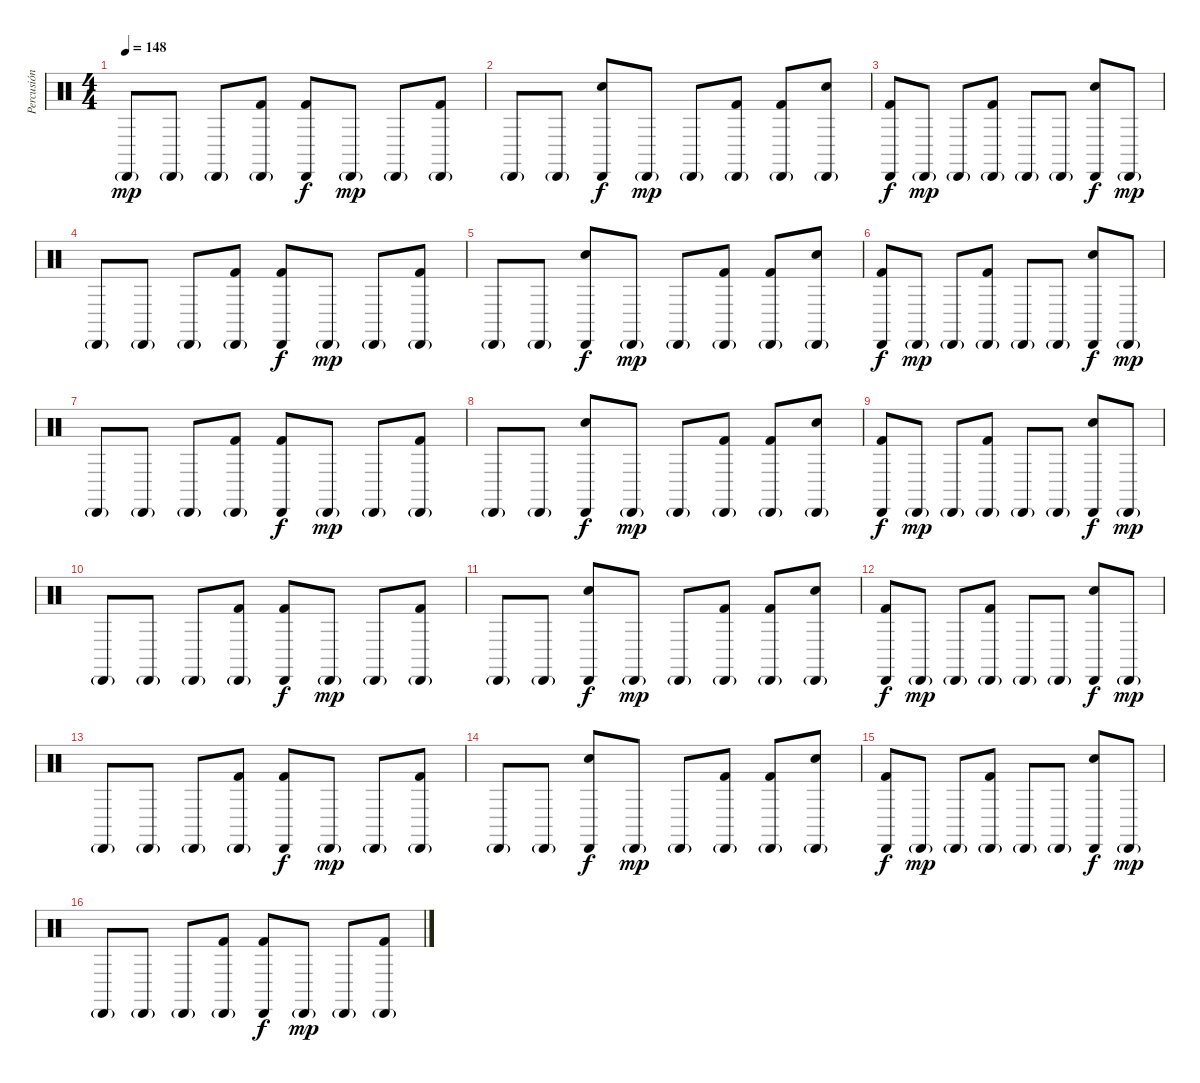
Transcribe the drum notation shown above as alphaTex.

\track ("Percusión" "Percusión") {instrument percussion}
\staff {score}
\articulation defaults
\ts (4 4)
\tempo 148
\clef neutral
\ks c "Cabasa (hit)"{g}.8{dy mp} "Cabasa (hit)"{g}.8 "Cabasa (hit)"{g}.8
("Kick (hit) 2" "Cabasa (hit)"{g}).8 ("Kick (hit) 2" "Cabasa (hit)").8{dy f} "Cabasa (hit)"{g}.8{dy mp} "Cabasa (hit)"{g}.8 ("Kick (hit) 2" "Cabasa (hit)"{g}).8 |
"Cabasa (hit)"{g}.8 "Cabasa (hit)"{g}.8 ("Electric Snare (hit)" "Cabasa (hit)").8{dy f} "Cabasa (hit)"{g}.8{dy mp} "Cabasa (hit)"{g}.8 ("Kick (hit) 2" "Cabasa (hit)"{g}).8 ("Kick (hit) 2" "Cabasa (hit)"{g}).8 ("Electric Snare (hit)" "Cabasa (hit)"{g}).8 |
("Kick (hit) 2" "Cabasa (hit)").8{dy f} "Cabasa (hit)"{g}.8{dy mp} "Cabasa (hit)"{g}.8 ("Kick (hit) 2" "Cabasa (hit)"{g}).8 "Cabasa (hit)"{g}.8 "Cabasa (hit)"{g}.8 ("Electric Snare (hit)" "Cabasa (hit)").8{dy f} "Cabasa (hit)"{g}.8{dy mp} |
"Cabasa (hit)"{g}.8 "Cabasa (hit)"{g}.8 "Cabasa (hit)"{g}.8 ("Kick (hit) 2" "Cabasa (hit)"{g}).8 ("Kick (hit) 2" "Cabasa (hit)").8{dy f} "Cabasa (hit)"{g}.8{dy mp} "Cabasa (hit)"{g}.8 ("Kick (hit) 2" "Cabasa (hit)"{g}).8 |
"Cabasa (hit)"{g}.8 "Cabasa (hit)"{g}.8 ("Electric Snare (hit)" "Cabasa (hit)").8{dy f} "Cabasa (hit)"{g}.8{dy mp} "Cabasa (hit)"{g}.8 ("Kick (hit) 2" "Cabasa (hit)"{g}).8 ("Kick (hit) 2" "Cabasa (hit)"{g}).8 ("Electric Snare (hit)" "Cabasa (hit)"{g}).8 |
("Kick (hit) 2" "Cabasa (hit)").8{dy f} "Cabasa (hit)"{g}.8{dy mp} "Cabasa (hit)"{g}.8 ("Kick (hit) 2" "Cabasa (hit)"{g}).8 "Cabasa (hit)"{g}.8 "Cabasa (hit)"{g}.8 ("Electric Snare (hit)" "Cabasa (hit)").8{dy f} "Cabasa (hit)"{g}.8{dy mp} |
"Cabasa (hit)"{g}.8 "Cabasa (hit)"{g}.8 "Cabasa (hit)"{g}.8 ("Kick (hit) 2" "Cabasa (hit)"{g}).8 ("Kick (hit) 2" "Cabasa (hit)").8{dy f} "Cabasa (hit)"{g}.8{dy mp} "Cabasa (hit)"{g}.8 ("Kick (hit) 2" "Cabasa (hit)"{g}).8 |
"Cabasa (hit)"{g}.8 "Cabasa (hit)"{g}.8 ("Electric Snare (hit)" "Cabasa (hit)").8{dy f} "Cabasa (hit)"{g}.8{dy mp} "Cabasa (hit)"{g}.8 ("Kick (hit) 2" "Cabasa (hit)"{g}).8 ("Kick (hit) 2" "Cabasa (hit)"{g}).8 ("Electric Snare (hit)" "Cabasa (hit)"{g}).8 |
("Kick (hit) 2" "Cabasa (hit)").8{dy f} "Cabasa (hit)"{g}.8{dy mp} "Cabasa (hit)"{g}.8 ("Kick (hit) 2" "Cabasa (hit)"{g}).8 "Cabasa (hit)"{g}.8 "Cabasa (hit)"{g}.8 ("Electric Snare (hit)" "Cabasa (hit)").8{dy f} "Cabasa (hit)"{g}.8{dy mp} |
"Cabasa (hit)"{g}.8 "Cabasa (hit)"{g}.8 "Cabasa (hit)"{g}.8 ("Kick (hit) 2" "Cabasa (hit)"{g}).8 ("Kick (hit) 2" "Cabasa (hit)").8{dy f} "Cabasa (hit)"{g}.8{dy mp} "Cabasa (hit)"{g}.8 ("Kick (hit) 2" "Cabasa (hit)"{g}).8 |
"Cabasa (hit)"{g}.8 "Cabasa (hit)"{g}.8 ("Electric Snare (hit)" "Cabasa (hit)").8{dy f} "Cabasa (hit)"{g}.8{dy mp} "Cabasa (hit)"{g}.8 ("Kick (hit) 2" "Cabasa (hit)"{g}).8 ("Kick (hit) 2" "Cabasa (hit)"{g}).8 ("Electric Snare (hit)" "Cabasa (hit)"{g}).8 |
("Kick (hit) 2" "Cabasa (hit)").8{dy f} "Cabasa (hit)"{g}.8{dy mp} "Cabasa (hit)"{g}.8 ("Kick (hit) 2" "Cabasa (hit)"{g}).8 "Cabasa (hit)"{g}.8 "Cabasa (hit)"{g}.8 ("Electric Snare (hit)" "Cabasa (hit)").8{dy f} "Cabasa (hit)"{g}.8{dy mp} |
"Cabasa (hit)"{g}.8 "Cabasa (hit)"{g}.8 "Cabasa (hit)"{g}.8 ("Kick (hit) 2" "Cabasa (hit)"{g}).8 ("Kick (hit) 2" "Cabasa (hit)").8{dy f} "Cabasa (hit)"{g}.8{dy mp} "Cabasa (hit)"{g}.8 ("Kick (hit) 2" "Cabasa (hit)"{g}).8 |
"Cabasa (hit)"{g}.8 "Cabasa (hit)"{g}.8 ("Electric Snare (hit)" "Cabasa (hit)").8{dy f} "Cabasa (hit)"{g}.8{dy mp} "Cabasa (hit)"{g}.8 ("Kick (hit) 2" "Cabasa (hit)"{g}).8 ("Kick (hit) 2" "Cabasa (hit)"{g}).8 ("Electric Snare (hit)" "Cabasa (hit)"{g}).8 |
("Kick (hit) 2" "Cabasa (hit)").8{dy f} "Cabasa (hit)"{g}.8{dy mp} "Cabasa (hit)"{g}.8 ("Kick (hit) 2" "Cabasa (hit)"{g}).8 "Cabasa (hit)"{g}.8 "Cabasa (hit)"{g}.8 ("Electric Snare (hit)" "Cabasa (hit)").8{dy f} "Cabasa (hit)"{g}.8{dy mp} |
"Cabasa (hit)"{g}.8 "Cabasa (hit)"{g}.8 "Cabasa (hit)"{g}.8 ("Kick (hit) 2" "Cabasa (hit)"{g}).8 ("Kick (hit) 2" "Cabasa (hit)").8{dy f} "Cabasa (hit)"{g}.8{dy mp} "Cabasa (hit)"{g}.8 ("Kick (hit) 2" "Cabasa (hit)"{g}).8
